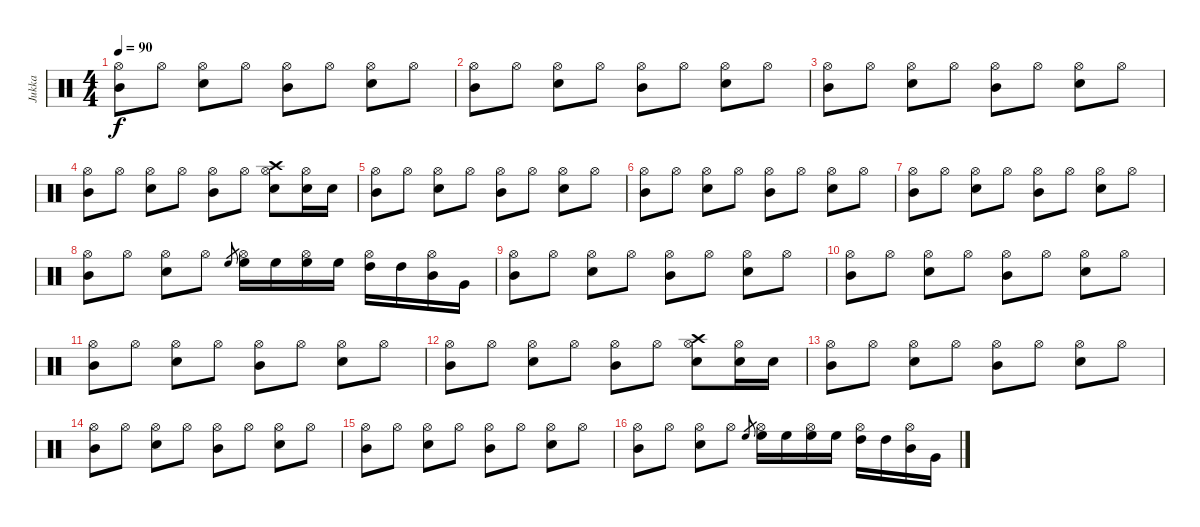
\track ("Jukka" "Jukka") {instrument percussion}
\staff {score}
\articulation defaults
\ts (4 4)
\tempo 90
\clef neutral
\ks c
("Mid Tom (hit)" "Hi-Hat (open)").8{dy f} "Hi-Hat (open)".8 ("Hi-Hat (open)" "Snare (hit) 2").8 "Hi-Hat (open)".8 ("Hi-Hat (open)" "Mid Tom (hit)").8 "Hi-Hat (open)".8 ("Hi-Hat (open)" "Snare (hit) 2").8 "Hi-Hat (open)".8 |
("Mid Tom (hit)" "Hi-Hat (open)").8 "Hi-Hat (open)".8 ("Hi-Hat (open)" "Snare (hit) 2").8 "Hi-Hat (open)".8 ("Hi-Hat (open)" "Mid Tom (hit)").8 "Hi-Hat (open)".8 ("Hi-Hat (open)" "Snare (hit) 2").8 "Hi-Hat (open)".8 |
("Mid Tom (hit)" "Hi-Hat (open)").8 "Hi-Hat (open)".8 ("Hi-Hat (open)" "Snare (hit) 2").8 "Hi-Hat (open)".8 ("Hi-Hat (open)" "Mid Tom (hit)").8 "Hi-Hat (open)".8 ("Hi-Hat (open)" "Snare (hit) 2").8 "Hi-Hat (open)".8 |
("Mid Tom (hit)" "Hi-Hat (open)").8 "Hi-Hat (open)".8 ("Hi-Hat (open)" "Snare (hit) 2").8 "Hi-Hat (open)".8 ("Hi-Hat (open)" "Mid Tom (hit)").8 "Hi-Hat (open)".8 ("Hi-Hat (open)" "Snare (hit) 2" "Crash high (hit)").8 ("Hi-Hat (open)" "Snare (hit) 2").16 "Snare (hit) 2".16 |
("Mid Tom (hit)" "Hi-Hat (open)").8 "Hi-Hat (open)".8 ("Hi-Hat (open)" "Snare (hit) 2").8 "Hi-Hat (open)".8 ("Hi-Hat (open)" "Mid Tom (hit)").8 "Hi-Hat (open)".8 ("Hi-Hat (open)" "Snare (hit) 2").8 "Hi-Hat (open)".8 |
("Mid Tom (hit)" "Hi-Hat (open)").8 "Hi-Hat (open)".8 ("Hi-Hat (open)" "Snare (hit) 2").8 "Hi-Hat (open)".8 ("Hi-Hat (open)" "Mid Tom (hit)").8 "Hi-Hat (open)".8 ("Hi-Hat (open)" "Snare (hit) 2").8 "Hi-Hat (open)".8 |
("Mid Tom (hit)" "Hi-Hat (open)").8 "Hi-Hat (open)".8 ("Hi-Hat (open)" "Snare (hit) 2").8 "Hi-Hat (open)".8 ("Hi-Hat (open)" "Mid Tom (hit)").8 "Hi-Hat (open)".8 ("Hi-Hat (open)" "Snare (hit) 2").8 "Hi-Hat (open)".8 |
("Mid Tom (hit)" "Hi-Hat (open)").8 "Hi-Hat (open)".8 ("Hi-Hat (open)" "Snare (hit) 2").8 "Hi-Hat (open)".8 "High Floor Tom (hit)".8{gr} ("Hi-Hat (open)" "High Floor Tom (hit)").16 "High Floor Tom (hit)".16 ("Hi-Hat (open)" "High Floor Tom (hit)").16 "High Floor Tom (hit)".16 ("High Tom (hit)" "Hi-Hat (open)").16 "High Tom (hit)".16 ("Mid Tom (hit)" "Hi-Hat (open)").16 "Very Low Tom (hit)".16 |
("Mid Tom (hit)" "Hi-Hat (open)").8 "Hi-Hat (open)".8 ("Hi-Hat (open)" "Snare (hit) 2").8 "Hi-Hat (open)".8 ("Hi-Hat (open)" "Mid Tom (hit)").8 "Hi-Hat (open)".8 ("Hi-Hat (open)" "Snare (hit) 2").8 "Hi-Hat (open)".8 |
("Mid Tom (hit)" "Hi-Hat (open)").8 "Hi-Hat (open)".8 ("Hi-Hat (open)" "Snare (hit) 2").8 "Hi-Hat (open)".8 ("Hi-Hat (open)" "Mid Tom (hit)").8 "Hi-Hat (open)".8 ("Hi-Hat (open)" "Snare (hit) 2").8 "Hi-Hat (open)".8 |
("Mid Tom (hit)" "Hi-Hat (open)").8 "Hi-Hat (open)".8 ("Hi-Hat (open)" "Snare (hit) 2").8 "Hi-Hat (open)".8 ("Hi-Hat (open)" "Mid Tom (hit)").8 "Hi-Hat (open)".8 ("Hi-Hat (open)" "Snare (hit) 2").8 "Hi-Hat (open)".8 |
("Mid Tom (hit)" "Hi-Hat (open)").8 "Hi-Hat (open)".8 ("Hi-Hat (open)" "Snare (hit) 2").8 "Hi-Hat (open)".8 ("Hi-Hat (open)" "Mid Tom (hit)").8 "Hi-Hat (open)".8 ("Hi-Hat (open)" "Snare (hit) 2" "Crash high (hit)").8 ("Hi-Hat (open)" "Snare (hit) 2").16 "Snare (hit) 2".16 |
("Mid Tom (hit)" "Hi-Hat (open)").8 "Hi-Hat (open)".8 ("Hi-Hat (open)" "Snare (hit) 2").8 "Hi-Hat (open)".8 ("Hi-Hat (open)" "Mid Tom (hit)").8 "Hi-Hat (open)".8 ("Hi-Hat (open)" "Snare (hit) 2").8 "Hi-Hat (open)".8 |
("Mid Tom (hit)" "Hi-Hat (open)").8 "Hi-Hat (open)".8 ("Hi-Hat (open)" "Snare (hit) 2").8 "Hi-Hat (open)".8 ("Hi-Hat (open)" "Mid Tom (hit)").8 "Hi-Hat (open)".8 ("Hi-Hat (open)" "Snare (hit) 2").8 "Hi-Hat (open)".8 |
("Mid Tom (hit)" "Hi-Hat (open)").8 "Hi-Hat (open)".8 ("Hi-Hat (open)" "Snare (hit) 2").8 "Hi-Hat (open)".8 ("Hi-Hat (open)" "Mid Tom (hit)").8 "Hi-Hat (open)".8 ("Hi-Hat (open)" "Snare (hit) 2").8 "Hi-Hat (open)".8 |
("Mid Tom (hit)" "Hi-Hat (open)").8 "Hi-Hat (open)".8 ("Hi-Hat (open)" "Snare (hit) 2").8 "Hi-Hat (open)".8 "High Floor Tom (hit)".8{gr} ("Hi-Hat (open)" "High Floor Tom (hit)").16 "High Floor Tom (hit)".16 ("Hi-Hat (open)" "High Floor Tom (hit)").16 "High Floor Tom (hit)".16 ("High Tom (hit)" "Hi-Hat (open)").16 "High Tom (hit)".16 ("Mid Tom (hit)" "Hi-Hat (open)").16 "Very Low Tom (hit)".16
